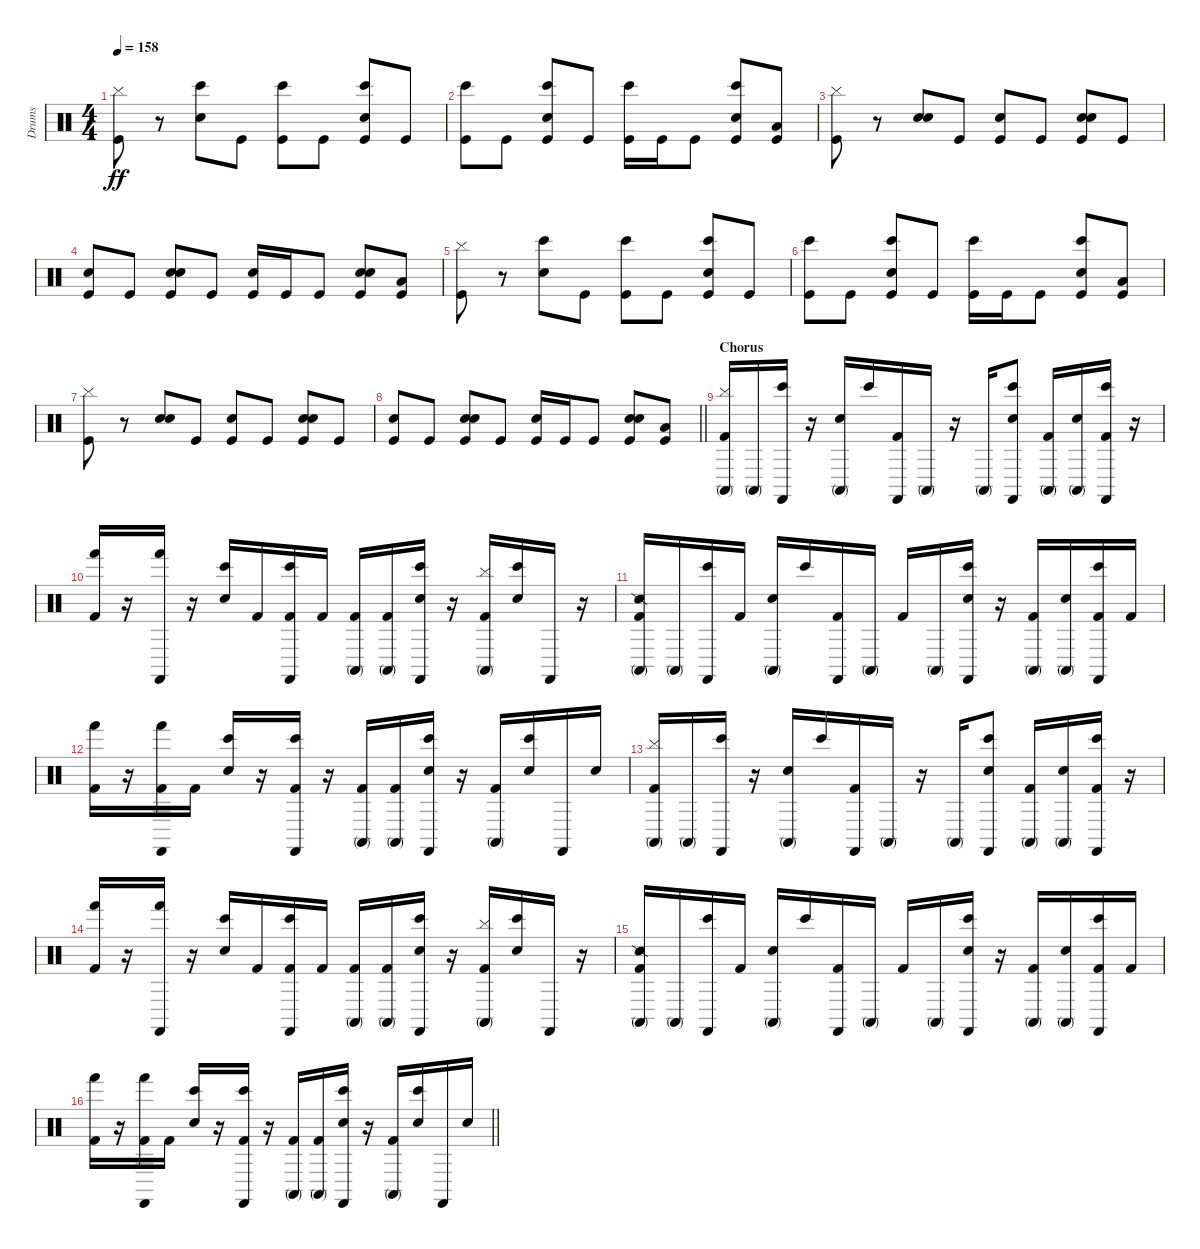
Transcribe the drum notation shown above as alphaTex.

\track ("Drums" "Drums") {instrument percussion}
\staff {score}
\articulation defaults
\ts (4 4)
\tempo 158
\clef neutral
\ks c
("Cymbal (hit)" "Kick (hit)").8{dy ff} r.8 ("Bongo High (hit)" "Snare (hit) 2").8 "Kick (hit)".8 ("Bongo High (hit)" "Kick (hit)").8 "Kick (hit)".8 ("Bongo High (hit)" "Kick (hit)" "Snare (hit) 2").8 "Kick (hit)".8 |
("Bongo High (hit)" "Kick (hit)").8 "Kick (hit)".8 ("Bongo High (hit)" "Kick (hit)" "Snare (hit) 2").8 "Kick (hit)".8 ("Bongo High (hit)" "Kick (hit)").16 "Kick (hit)".16 "Kick (hit)".8 ("Bongo High (hit)" "Kick (hit)" "Snare (hit) 2").8 ("Kick (hit)" "Low Tom (hit)").8 |
("Cymbal (hit)" "Kick (hit)").8 r.8 ("Snare (hit)" "Snare (hit) 2").8 "Kick (hit)".8 ("Snare (hit)" "Kick (hit)").8 "Kick (hit)".8 ("Snare (hit)" "Kick (hit)" "Snare (hit) 2").8 "Kick (hit)".8 |
("Snare (hit)" "Kick (hit)").8 "Kick (hit)".8 ("Snare (hit)" "Kick (hit)" "Snare (hit) 2").8 "Kick (hit)".8 ("Snare (hit)" "Kick (hit)").16 "Kick (hit)".16 "Kick (hit)".8 ("Snare (hit)" "Kick (hit)" "Snare (hit) 2").8 ("Kick (hit)" "Low Tom (hit)").8 |
("Cymbal (hit)" "Kick (hit)").8 r.8 ("Bongo High (hit)" "Snare (hit) 2").8 "Kick (hit)".8 ("Bongo High (hit)" "Kick (hit)").8 "Kick (hit)".8 ("Bongo High (hit)" "Kick (hit)" "Snare (hit) 2").8 "Kick (hit)".8 |
("Bongo High (hit)" "Kick (hit)").8 "Kick (hit)".8 ("Bongo High (hit)" "Kick (hit)" "Snare (hit) 2").8 "Kick (hit)".8 ("Bongo High (hit)" "Kick (hit)").16 "Kick (hit)".16 "Kick (hit)".8 ("Bongo High (hit)" "Kick (hit)" "Snare (hit) 2").8 ("Kick (hit)" "Low Tom (hit)").8 |
("Cymbal (hit)" "Kick (hit)").8 r.8 ("Snare (hit)" "Snare (hit) 2").8 "Kick (hit)".8 ("Snare (hit)" "Kick (hit)").8 "Kick (hit)".8 ("Snare (hit)" "Kick (hit)" "Snare (hit) 2").8 "Kick (hit)".8 |
\barLineRight lightlight
("Snare (hit)" "Kick (hit)").8 "Kick (hit)".8 ("Snare (hit)" "Kick (hit)" "Snare (hit) 2").8 "Kick (hit)".8 ("Snare (hit)" "Kick (hit)").16 "Kick (hit)".16 "Kick (hit)".8 ("Snare (hit)" "Kick (hit)" "Snare (hit) 2").8 ("Kick (hit)" "Low Tom (hit)").8 |
\section ("" "Chorus")
("Cymbal (hit)" "Kick (hit) 2" "Conga high (mute)").16 "Conga high (mute)".16 ("Bongo High (hit)" "Castanets (hit)").16 r.16 ("Snare (hit) 2" "Conga high (mute)").16 "Bongo High (hit)".16 ("Kick (hit) 2" "Castanets (hit)").16 "Conga high (mute)".16 r.16 "Conga high (mute)".16 ("Snare (hit) 2" "Bongo High (hit)" "Castanets (hit)").8 ("Kick (hit) 2" "Conga high (mute)").16 ("Snare (hit) 2" "Conga high (mute)").16 ("Kick (hit) 2" "Bongo High (hit)" "Castanets (hit)").16 r.16 |
("Kick (hit) 2" "Hand (hit)").16 r.16 ("Hand (hit)" "Castanets (hit)").16 r.16 ("Snare (hit) 2" "Bongo High (hit)").16 "Kick (hit) 2".16 ("Kick (hit) 2" "Bongo High (hit)" "Castanets (hit)").16 "Kick (hit) 2".16 ("Kick (hit) 2" "Conga high (mute)").16 ("Kick (hit) 2" "Conga high (mute)").16 ("Snare (hit) 2" "Bongo High (hit)" "Castanets (hit)").16 r.16 ("Cymbal (hit)" "Kick (hit) 2" "Conga high (mute)").16 ("Snare (hit) 2" "Bongo High (hit)").16 "Castanets (hit)".16 r.16 |
("Snare (side stick) 2" "Kick (hit) 2" "Conga high (mute)").16 "Conga high (mute)".16 ("Bongo High (hit)" "Castanets (hit)").16 "Kick (hit) 2".16 ("Snare (hit) 2" "Conga high (mute)").16 "Bongo High (hit)".16 ("Kick (hit) 2" "Castanets (hit)").16 "Conga high (mute)".16 "Kick (hit) 2".16 "Conga high (mute)".16 ("Snare (hit) 2" "Bongo High (hit)" "Castanets (hit)").16 r.16 ("Kick (hit) 2" "Conga high (mute)").16 ("Snare (hit) 2" "Conga high (mute)").16 ("Kick (hit) 2" "Bongo High (hit)" "Castanets (hit)").16 "Kick (hit) 2".16 |
("Kick (hit) 2" "Hand (hit)").16 r.16 ("Kick (hit) 2" "Hand (hit)" "Castanets (hit)").16 "Kick (hit) 2".16 ("Snare (hit) 2" "Bongo High (hit)").16 r.16 ("Kick (hit) 2" "Bongo High (hit)" "Castanets (hit)").16 r.16 ("Kick (hit) 2" "Conga high (mute)").16 ("Kick (hit) 2" "Conga high (mute)").16 ("Snare (hit) 2" "Bongo High (hit)" "Castanets (hit)").16 r.16 ("Kick (hit) 2" "Conga high (mute)").16 ("Snare (hit) 2" "Bongo High (hit)").16 "Castanets (hit)".16 "Snare (hit) 2".16 |
("Cymbal (hit)" "Kick (hit) 2" "Conga high (mute)").16 "Conga high (mute)".16 ("Bongo High (hit)" "Castanets (hit)").16 r.16 ("Snare (hit) 2" "Conga high (mute)").16 "Bongo High (hit)".16 ("Kick (hit) 2" "Castanets (hit)").16 "Conga high (mute)".16 r.16 "Conga high (mute)".16 ("Snare (hit) 2" "Bongo High (hit)" "Castanets (hit)").8 ("Kick (hit) 2" "Conga high (mute)").16 ("Snare (hit) 2" "Conga high (mute)").16 ("Kick (hit) 2" "Bongo High (hit)" "Castanets (hit)").16 r.16 |
("Kick (hit) 2" "Hand (hit)").16 r.16 ("Hand (hit)" "Castanets (hit)").16 r.16 ("Snare (hit) 2" "Bongo High (hit)").16 "Kick (hit) 2".16 ("Kick (hit) 2" "Bongo High (hit)" "Castanets (hit)").16 "Kick (hit) 2".16 ("Kick (hit) 2" "Conga high (mute)").16 ("Kick (hit) 2" "Conga high (mute)").16 ("Snare (hit) 2" "Bongo High (hit)" "Castanets (hit)").16 r.16 ("Cymbal (hit)" "Kick (hit) 2" "Conga high (mute)").16 ("Snare (hit) 2" "Bongo High (hit)").16 "Castanets (hit)".16 r.16 |
("Snare (side stick) 2" "Kick (hit) 2" "Conga high (mute)").16 "Conga high (mute)".16 ("Bongo High (hit)" "Castanets (hit)").16 "Kick (hit) 2".16 ("Snare (hit) 2" "Conga high (mute)").16 "Bongo High (hit)".16 ("Kick (hit) 2" "Castanets (hit)").16 "Conga high (mute)".16 "Kick (hit) 2".16 "Conga high (mute)".16 ("Snare (hit) 2" "Bongo High (hit)" "Castanets (hit)").16 r.16 ("Kick (hit) 2" "Conga high (mute)").16 ("Snare (hit) 2" "Conga high (mute)").16 ("Kick (hit) 2" "Bongo High (hit)" "Castanets (hit)").16 "Kick (hit) 2".16 |
\barLineRight lightlight
("Kick (hit) 2" "Hand (hit)").16 r.16 ("Kick (hit) 2" "Hand (hit)" "Castanets (hit)").16 "Kick (hit) 2".16 ("Snare (hit) 2" "Bongo High (hit)").16 r.16 ("Kick (hit) 2" "Bongo High (hit)" "Castanets (hit)").16 r.16 ("Kick (hit) 2" "Conga high (mute)").16 ("Kick (hit) 2" "Conga high (mute)").16 ("Snare (hit) 2" "Bongo High (hit)" "Castanets (hit)").16 r.16 ("Kick (hit) 2" "Conga high (mute)").16 ("Snare (hit) 2" "Bongo High (hit)").16 "Castanets (hit)".16 "Snare (hit) 2".16
